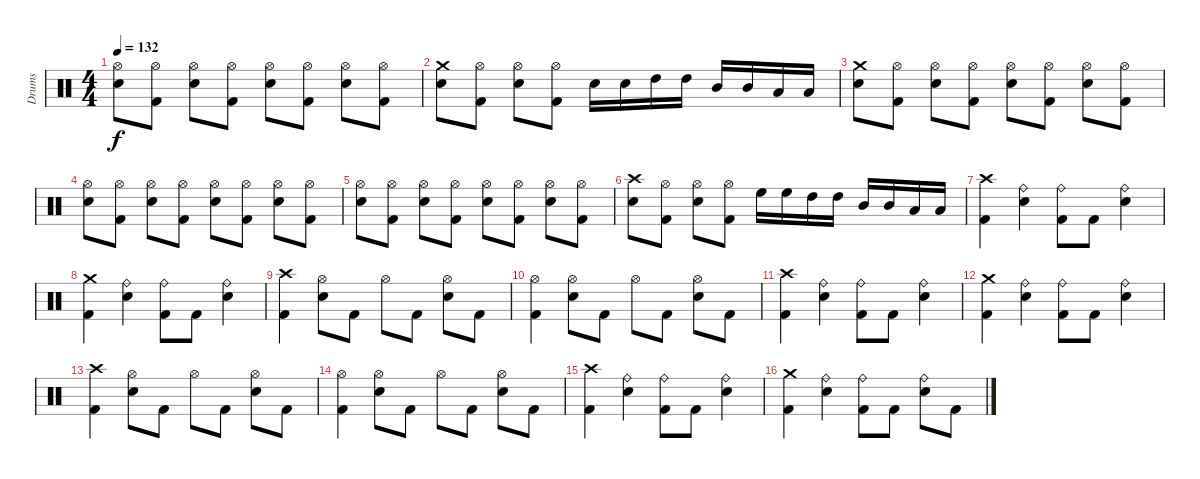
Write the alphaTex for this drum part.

\track ("Drums" "Drums") {instrument percussion}
\staff {score}
\articulation defaults
\ts (4 4)
\tempo 132
\clef neutral
\ks c
("Hi-Hat (open)" "Electric Snare (hit)").8{dy f} ("Hi-Hat (open)" "Kick (hit) 2").8 ("Hi-Hat (open)" "Electric Snare (hit)").8 ("Hi-Hat (open)" "Kick (hit) 2").8 ("Hi-Hat (open)" "Electric Snare (hit)").8 ("Hi-Hat (open)" "Kick (hit) 2").8 ("Hi-Hat (open)" "Electric Snare (hit)").8 ("Hi-Hat (open)" "Kick (hit) 2").8 |
("Crash medium (hit)" "Electric Snare (hit)").8 ("Hi-Hat (open)" "Kick (hit) 2").8 ("Hi-Hat (open)" "Electric Snare (hit)").8 ("Hi-Hat (open)" "Kick (hit) 2").8 "Electric Snare (hit)".16 "Electric Snare (hit)".16 "High Tom (hit)".16 "High Tom (hit)".16 "Mid Tom (hit)".16 "Mid Tom (hit)".16 "Low Tom (hit)".16 "Low Tom (hit)".16 |
("Crash medium (hit)" "Electric Snare (hit)").8 ("Hi-Hat (open)" "Kick (hit) 2").8 ("Hi-Hat (open)" "Electric Snare (hit)").8 ("Hi-Hat (open)" "Kick (hit) 2").8 ("Hi-Hat (open)" "Electric Snare (hit)").8 ("Hi-Hat (open)" "Kick (hit) 2").8 ("Hi-Hat (open)" "Electric Snare (hit)").8 ("Hi-Hat (open)" "Kick (hit) 2").8 |
("Hi-Hat (open)" "Electric Snare (hit)").8 ("Hi-Hat (open)" "Kick (hit) 2").8 ("Hi-Hat (open)" "Electric Snare (hit)").8 ("Hi-Hat (open)" "Kick (hit) 2").8 ("Hi-Hat (open)" "Electric Snare (hit)").8 ("Hi-Hat (open)" "Kick (hit) 2").8 ("Hi-Hat (open)" "Electric Snare (hit)").8 ("Hi-Hat (open)" "Kick (hit) 2").8 |
("Hi-Hat (open)" "Electric Snare (hit)").8 ("Hi-Hat (open)" "Kick (hit) 2").8 ("Hi-Hat (open)" "Electric Snare (hit)").8 ("Hi-Hat (open)" "Kick (hit) 2").8 ("Hi-Hat (open)" "Electric Snare (hit)").8 ("Hi-Hat (open)" "Kick (hit) 2").8 ("Hi-Hat (open)" "Electric Snare (hit)").8 ("Hi-Hat (open)" "Kick (hit) 2").8 |
("Crash high (hit)" "Electric Snare (hit)").8 ("Hi-Hat (open)" "Kick (hit) 2").8 ("Hi-Hat (open)" "Electric Snare (hit)").8 ("Hi-Hat (open)" "Kick (hit) 2").8 "High Floor Tom (hit)".16 "High Floor Tom (hit)".16 "High Tom (hit)".16 "High Tom (hit)".16 "Mid Tom (hit)".16 "Mid Tom (hit)".16 "Low Tom (hit)".16 "Low Tom (hit)".16 |
("Crash high (hit)" "Kick (hit) 2").4 ("Ride (bell)" "Electric Snare (hit)").4 ("Ride (bell)" "Kick (hit) 2").8 "Kick (hit) 2".8 ("Ride (bell)" "Electric Snare (hit)").4 |
("Crash medium (hit)" "Kick (hit) 2").4 ("Ride (bell)" "Electric Snare (hit)").4 ("Ride (bell)" "Kick (hit) 2").8 "Kick (hit) 2".8 ("Ride (bell)" "Electric Snare (hit)").4 |
("Crash high (hit)" "Kick (hit) 2").4 ("Hi-Hat (open)" "Electric Snare (hit)").8 "Kick (hit) 2".8 "Hi-Hat (open)".8 "Kick (hit) 2".8 ("Hi-Hat (open)" "Electric Snare (hit)").8 "Kick (hit) 2".8 |
("Hi-Hat (open)" "Kick (hit) 2").4 ("Hi-Hat (open)" "Electric Snare (hit)").8 "Kick (hit) 2".8 "Hi-Hat (open)".8 "Kick (hit) 2".8 ("Hi-Hat (open)" "Electric Snare (hit)").8 "Kick (hit) 2".8 |
("Crash high (hit)" "Kick (hit) 2").4 ("Ride (bell)" "Electric Snare (hit)").4 ("Ride (bell)" "Kick (hit) 2").8 "Kick (hit) 2".8 ("Ride (bell)" "Electric Snare (hit)").4 |
("Crash medium (hit)" "Kick (hit) 2").4 ("Ride (bell)" "Electric Snare (hit)").4 ("Ride (bell)" "Kick (hit) 2").8 "Kick (hit) 2".8 ("Ride (bell)" "Electric Snare (hit)").4 |
("Crash high (hit)" "Kick (hit) 2").4 ("Hi-Hat (open)" "Electric Snare (hit)").8 "Kick (hit) 2".8 "Hi-Hat (open)".8 "Kick (hit) 2".8 ("Hi-Hat (open)" "Electric Snare (hit)").8 "Kick (hit) 2".8 |
("Hi-Hat (open)" "Kick (hit) 2").4 ("Hi-Hat (open)" "Electric Snare (hit)").8 "Kick (hit) 2".8 "Hi-Hat (open)".8 "Kick (hit) 2".8 ("Hi-Hat (open)" "Electric Snare (hit)").8 "Kick (hit) 2".8 |
("Crash high (hit)" "Kick (hit) 2").4 ("Ride (bell)" "Electric Snare (hit)").4 ("Ride (bell)" "Kick (hit) 2").8 "Kick (hit) 2".8 ("Ride (bell)" "Electric Snare (hit)").4 |
("Crash medium (hit)" "Kick (hit) 2").4 ("Ride (bell)" "Electric Snare (hit)").4 ("Ride (bell)" "Kick (hit) 2").8 "Kick (hit) 2".8 ("Ride (bell)" "Electric Snare (hit)").8 "Kick (hit) 2".8
